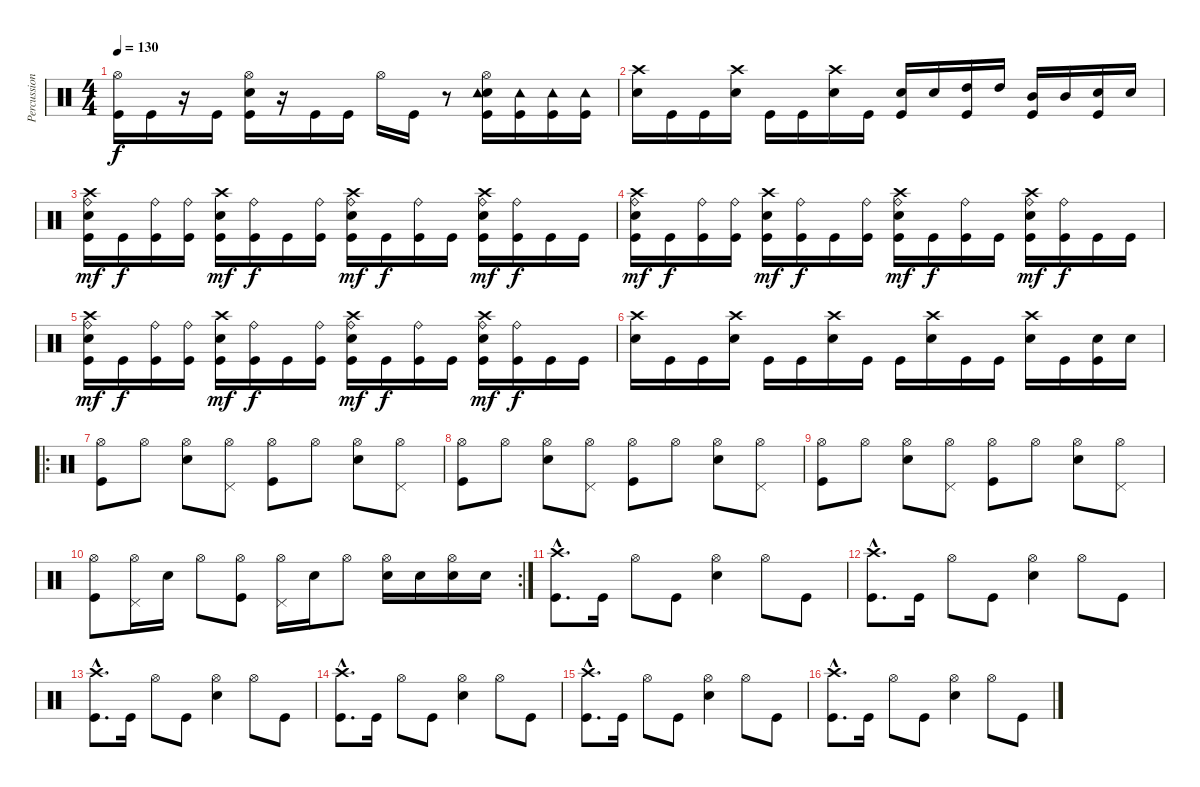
\track ("Percussion" "Percussion") {instrument percussion}
\staff {score}
\articulation defaults
\ts (4 4)
\tempo 130
\clef neutral
\ks c
("Hi-Hat (open)" "Kick (hit)").16{dy f} "Kick (hit)".16 r.16 "Kick (hit)".16 ("Hi-Hat (open)" "Snare (hit) 2" "Kick (hit)").16 r.16 "Kick (hit)".16 "Kick (hit)".16 "Hi-Hat (open)".16 "Kick (hit)".16 r.8 ("Hi-Hat (open)" "Snare (hit) 2" "Kick (hit)" "Tambourine (hit)").16 ("Kick (hit)" "Tambourine (hit)").16 ("Kick (hit)" "Tambourine (hit)").16 ("Kick (hit)" "Tambourine (hit)").16 |
("Snare (hit) 2" "Crash high (hit)").16 "Kick (hit)".16 "Kick (hit)".16 ("Snare (hit) 2" "Crash high (hit)").16 "Kick (hit)".16 "Kick (hit)".16 ("Snare (hit) 2" "Crash high (hit)").16 "Kick (hit)".16 ("Snare (hit) 2" "Kick (hit)").16 "Snare (hit) 2".16 ("High Tom (hit)" "Kick (hit)").16 "High Tom (hit)".16 ("Mid Tom (hit)" "Kick (hit)").16 "Mid Tom (hit)".16 ("Snare (hit) 2" "Kick (hit)").16 "Snare (hit) 2".16 |
("Ride (bell)" "Snare (hit) 2" "Crash high (hit)" "Kick (hit)").16{dy mf} "Kick (hit)".16{dy f} ("Ride (bell)" "Kick (hit)").16 ("Ride (bell)" "Kick (hit)").16 ("Snare (hit) 2" "Crash high (hit)" "Kick (hit)").16{dy mf} ("Ride (bell)" "Kick (hit)").16{dy f} "Kick (hit)".16 ("Ride (bell)" "Kick (hit)").16 ("Ride (bell)" "Snare (hit) 2" "Crash high (hit)" "Kick (hit)").16{dy mf} "Kick (hit)".16{dy f} ("Ride (bell)" "Kick (hit)").16 "Kick (hit)".16 ("Ride (bell)" "Snare (hit) 2" "Crash high (hit)" "Kick (hit)").16{dy mf} ("Ride (bell)" "Kick (hit)").16{dy f} "Kick (hit)".16 "Kick (hit)".16 |
("Ride (bell)" "Snare (hit) 2" "Crash high (hit)" "Kick (hit)").16{dy mf} "Kick (hit)".16{dy f} ("Ride (bell)" "Kick (hit)").16 ("Ride (bell)" "Kick (hit)").16 ("Snare (hit) 2" "Crash high (hit)" "Kick (hit)").16{dy mf} ("Ride (bell)" "Kick (hit)").16{dy f} "Kick (hit)".16 ("Ride (bell)" "Kick (hit)").16 ("Ride (bell)" "Snare (hit) 2" "Crash high (hit)" "Kick (hit)").16{dy mf} "Kick (hit)".16{dy f} ("Ride (bell)" "Kick (hit)").16 "Kick (hit)".16 ("Ride (bell)" "Snare (hit) 2" "Crash high (hit)" "Kick (hit)").16{dy mf} ("Ride (bell)" "Kick (hit)").16{dy f} "Kick (hit)".16 "Kick (hit)".16 |
("Ride (bell)" "Snare (hit) 2" "Crash high (hit)" "Kick (hit)").16{dy mf} "Kick (hit)".16{dy f} ("Ride (bell)" "Kick (hit)").16 ("Ride (bell)" "Kick (hit)").16 ("Snare (hit) 2" "Crash high (hit)" "Kick (hit)").16{dy mf} ("Ride (bell)" "Kick (hit)").16{dy f} "Kick (hit)".16 ("Ride (bell)" "Kick (hit)").16 ("Ride (bell)" "Snare (hit) 2" "Crash high (hit)" "Kick (hit)").16{dy mf} "Kick (hit)".16{dy f} ("Ride (bell)" "Kick (hit)").16 "Kick (hit)".16 ("Ride (bell)" "Snare (hit) 2" "Crash high (hit)" "Kick (hit)").16{dy mf} ("Ride (bell)" "Kick (hit)").16{dy f} "Kick (hit)".16 "Kick (hit)".16 |
("Snare (hit) 2" "Crash high (hit)").16 "Kick (hit)".16 "Kick (hit)".16 ("Snare (hit) 2" "Crash high (hit)").16 "Kick (hit)".16 "Kick (hit)".16 ("Snare (hit) 2" "Crash high (hit)").16 "Kick (hit)".16 "Kick (hit)".16 ("Snare (hit) 2" "Crash high (hit)").16 "Kick (hit)".16 "Kick (hit)".16 ("Snare (hit) 2" "Crash high (hit)").16 "Kick (hit)".16 ("Snare (hit) 2" "Kick (hit)").16 "Snare (hit) 2".16 |
\ro
("Hi-Hat (open)" "Kick (hit)").8 "Hi-Hat (open)".8 ("Hi-Hat (open)" "Snare (hit) 2").8 ("Hi-Hat (open)" "Pedal Hi-Hat (hit)").8 ("Hi-Hat (open)" "Kick (hit)").8 "Hi-Hat (open)".8 ("Hi-Hat (open)" "Snare (hit) 2").8 ("Hi-Hat (open)" "Pedal Hi-Hat (hit)").8 |
("Hi-Hat (open)" "Kick (hit)").8 "Hi-Hat (open)".8 ("Hi-Hat (open)" "Snare (hit) 2").8 ("Hi-Hat (open)" "Pedal Hi-Hat (hit)").8 ("Hi-Hat (open)" "Kick (hit)").8 "Hi-Hat (open)".8 ("Hi-Hat (open)" "Snare (hit) 2").8 ("Hi-Hat (open)" "Pedal Hi-Hat (hit)").8 |
("Hi-Hat (open)" "Kick (hit)").8 "Hi-Hat (open)".8 ("Hi-Hat (open)" "Snare (hit) 2").8 ("Hi-Hat (open)" "Pedal Hi-Hat (hit)").8 ("Hi-Hat (open)" "Kick (hit)").8 "Hi-Hat (open)".8 ("Hi-Hat (open)" "Snare (hit) 2").8 ("Hi-Hat (open)" "Pedal Hi-Hat (hit)").8 |
\rc 2
("Hi-Hat (open)" "Kick (hit)").8 ("Hi-Hat (open)" "Pedal Hi-Hat (hit)").16 "Snare (hit) 2".16 "Hi-Hat (open)".8 ("Hi-Hat (open)" "Kick (hit)").8 ("Hi-Hat (open)" "Pedal Hi-Hat (hit)").16 "Snare (hit) 2".16 "Hi-Hat (open)".8 ("Hi-Hat (open)" "Snare (hit) 2").16 "Snare (hit) 2".16 ("Hi-Hat (open)" "Snare (hit) 2").16 "Snare (hit) 2".16 |
("Crash high (hit)"{hac} "Kick (hit)"{hac}).8{d} "Kick (hit)".16 "Hi-Hat (open)".8 "Kick (hit)".8 ("Hi-Hat (open)" "Snare (hit) 2").4 "Hi-Hat (open)".8 "Kick (hit)".8 |
("Crash high (hit)"{hac} "Kick (hit)"{hac}).8{d} "Kick (hit)".16 "Hi-Hat (open)".8 "Kick (hit)".8 ("Hi-Hat (open)" "Snare (hit) 2").4 "Hi-Hat (open)".8 "Kick (hit)".8 |
("Crash high (hit)"{hac} "Kick (hit)"{hac}).8{d} "Kick (hit)".16 "Hi-Hat (open)".8 "Kick (hit)".8 ("Hi-Hat (open)" "Snare (hit) 2").4 "Hi-Hat (open)".8 "Kick (hit)".8 |
("Crash high (hit)"{hac} "Kick (hit)"{hac}).8{d} "Kick (hit)".16 "Hi-Hat (open)".8 "Kick (hit)".8 ("Hi-Hat (open)" "Snare (hit) 2").4 "Hi-Hat (open)".8 "Kick (hit)".8 |
("Crash high (hit)"{hac} "Kick (hit)"{hac}).8{d} "Kick (hit)".16 "Hi-Hat (open)".8 "Kick (hit)".8 ("Hi-Hat (open)" "Snare (hit) 2").4 "Hi-Hat (open)".8 "Kick (hit)".8 |
("Crash high (hit)"{hac} "Kick (hit)"{hac}).8{d} "Kick (hit)".16 "Hi-Hat (open)".8 "Kick (hit)".8 ("Hi-Hat (open)" "Snare (hit) 2").4 "Hi-Hat (open)".8 "Kick (hit)".8
